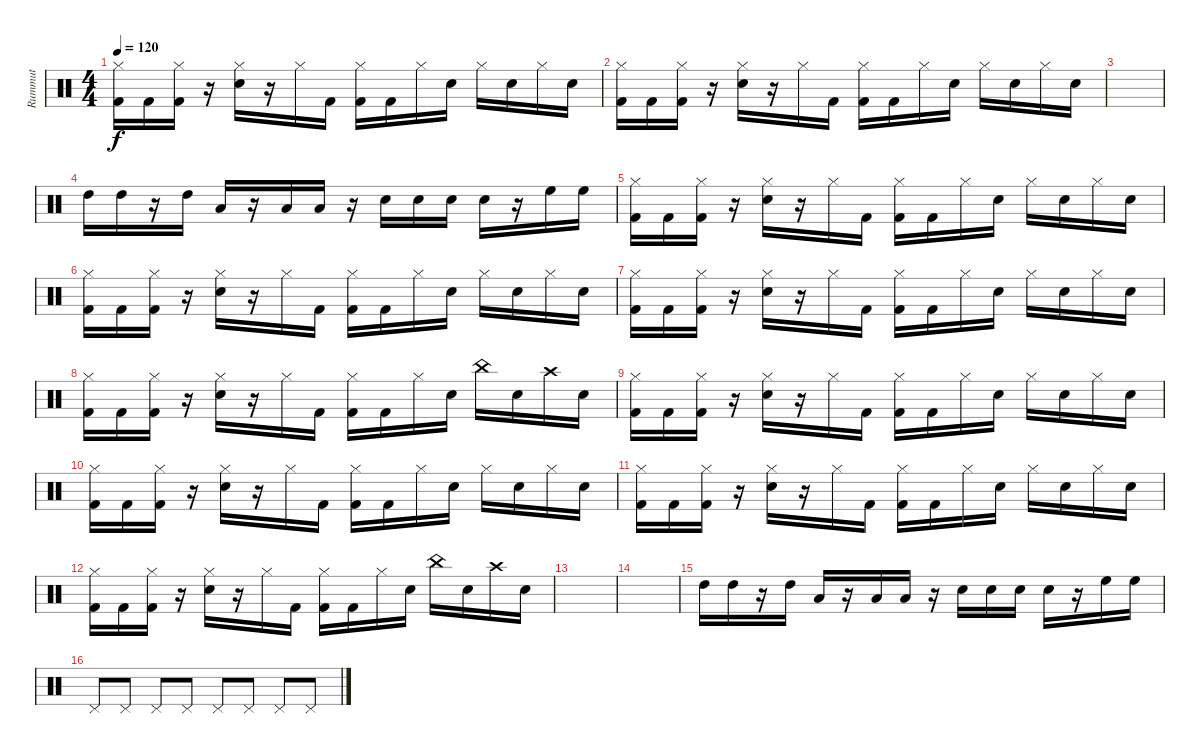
\track ("Rummut" "Rummut") {instrument percussion}
\staff {score}
\articulation defaults
\ts (4 4)
\tempo 120
\clef neutral
\ks c
("Hi-Hat (closed)" "Kick (hit) 2").16{dy f} "Kick (hit) 2".16 ("Hi-Hat (closed)" "Kick (hit) 2").16 r.16 ("Hi-Hat (closed)" "Snare (hit) 2").16 r.16 "Hi-Hat (closed)".16 "Kick (hit) 2".16 ("Hi-Hat (closed)" "Kick (hit) 2").16 "Kick (hit) 2".16 "Hi-Hat (closed)".16 "Snare (hit) 2".16 "Hi-Hat (closed)".16 "Snare (hit) 2".16 "Hi-Hat (closed)".16 "Snare (hit) 2".16 |
("Hi-Hat (closed)" "Kick (hit) 2").16 "Kick (hit) 2".16 ("Hi-Hat (closed)" "Kick (hit) 2").16 r.16 ("Hi-Hat (closed)" "Snare (hit) 2").16 r.16 "Hi-Hat (closed)".16 "Kick (hit) 2".16 ("Hi-Hat (closed)" "Kick (hit) 2").16 "Kick (hit) 2".16 "Hi-Hat (closed)".16 "Snare (hit) 2".16 "Hi-Hat (closed)".16 "Snare (hit) 2".16 "Hi-Hat (closed)".16 "Snare (hit) 2".16 |
|
"High Tom (hit)".16 "High Tom (hit)".16 r.16 "High Tom (hit)".16 "Low Tom (hit)".16 r.16 "Low Tom (hit)".16 "Low Tom (hit)".16 r.16 "Snare (hit) 2".16 "Snare (hit) 2".16 "Snare (hit) 2".16 "Snare (hit) 2".16 r.16 "High Floor Tom (hit)".16 "High Floor Tom (hit)".16 |
("Hi-Hat (closed)" "Kick (hit) 2").16 "Kick (hit) 2".16 ("Hi-Hat (closed)" "Kick (hit) 2").16 r.16 ("Hi-Hat (closed)" "Snare (hit) 2").16 r.16 "Hi-Hat (closed)".16 "Kick (hit) 2".16 ("Hi-Hat (closed)" "Kick (hit) 2").16 "Kick (hit) 2".16 "Hi-Hat (closed)".16 "Snare (hit) 2".16 "Hi-Hat (closed)".16 "Snare (hit) 2".16 "Hi-Hat (closed)".16 "Snare (hit) 2".16 |
("Hi-Hat (closed)" "Kick (hit) 2").16 "Kick (hit) 2".16 ("Hi-Hat (closed)" "Kick (hit) 2").16 r.16 ("Hi-Hat (closed)" "Snare (hit) 2").16 r.16 "Hi-Hat (closed)".16 "Kick (hit) 2".16 ("Hi-Hat (closed)" "Kick (hit) 2").16 "Kick (hit) 2".16 "Hi-Hat (closed)".16 "Snare (hit) 2".16 "Hi-Hat (closed)".16 "Snare (hit) 2".16 "Hi-Hat (closed)".16 "Snare (hit) 2".16 |
("Hi-Hat (closed)" "Kick (hit) 2").16 "Kick (hit) 2".16 ("Hi-Hat (closed)" "Kick (hit) 2").16 r.16 ("Hi-Hat (closed)" "Snare (hit) 2").16 r.16 "Hi-Hat (closed)".16 "Kick (hit) 2".16 ("Hi-Hat (closed)" "Kick (hit) 2").16 "Kick (hit) 2".16 "Hi-Hat (closed)".16 "Snare (hit) 2".16 "Hi-Hat (closed)".16 "Snare (hit) 2".16 "Hi-Hat (closed)".16 "Snare (hit) 2".16 |
("Hi-Hat (closed)" "Kick (hit) 2").16 "Kick (hit) 2".16 ("Hi-Hat (closed)" "Kick (hit) 2").16 r.16 ("Hi-Hat (closed)" "Snare (hit) 2").16 r.16 "Hi-Hat (closed)".16 "Kick (hit) 2".16 ("Hi-Hat (closed)" "Kick (hit) 2").16 "Kick (hit) 2".16 "Hi-Hat (closed)".16 "Snare (hit) 2".16 "China (hit)".16 "Snare (hit) 2".16 "Crash high (hit)".16 "Snare (hit) 2".16 |
("Hi-Hat (closed)" "Kick (hit) 2").16 "Kick (hit) 2".16 ("Hi-Hat (closed)" "Kick (hit) 2").16 r.16 ("Hi-Hat (closed)" "Snare (hit) 2").16 r.16 "Hi-Hat (closed)".16 "Kick (hit) 2".16 ("Hi-Hat (closed)" "Kick (hit) 2").16 "Kick (hit) 2".16 "Hi-Hat (closed)".16 "Snare (hit) 2".16 "Hi-Hat (closed)".16 "Snare (hit) 2".16 "Hi-Hat (closed)".16 "Snare (hit) 2".16 |
("Hi-Hat (closed)" "Kick (hit) 2").16 "Kick (hit) 2".16 ("Hi-Hat (closed)" "Kick (hit) 2").16 r.16 ("Hi-Hat (closed)" "Snare (hit) 2").16 r.16 "Hi-Hat (closed)".16 "Kick (hit) 2".16 ("Hi-Hat (closed)" "Kick (hit) 2").16 "Kick (hit) 2".16 "Hi-Hat (closed)".16 "Snare (hit) 2".16 "Hi-Hat (closed)".16 "Snare (hit) 2".16 "Hi-Hat (closed)".16 "Snare (hit) 2".16 |
("Hi-Hat (closed)" "Kick (hit) 2").16 "Kick (hit) 2".16 ("Hi-Hat (closed)" "Kick (hit) 2").16 r.16 ("Hi-Hat (closed)" "Snare (hit) 2").16 r.16 "Hi-Hat (closed)".16 "Kick (hit) 2".16 ("Hi-Hat (closed)" "Kick (hit) 2").16 "Kick (hit) 2".16 "Hi-Hat (closed)".16 "Snare (hit) 2".16 "Hi-Hat (closed)".16 "Snare (hit) 2".16 "Hi-Hat (closed)".16 "Snare (hit) 2".16 |
("Hi-Hat (closed)" "Kick (hit) 2").16 "Kick (hit) 2".16 ("Hi-Hat (closed)" "Kick (hit) 2").16 r.16 ("Hi-Hat (closed)" "Snare (hit) 2").16 r.16 "Hi-Hat (closed)".16 "Kick (hit) 2".16 ("Hi-Hat (closed)" "Kick (hit) 2").16 "Kick (hit) 2".16 "Hi-Hat (closed)".16 "Snare (hit) 2".16 "China (hit)".16 "Snare (hit) 2".16 "Crash high (hit)".16 "Snare (hit) 2".16 |
|
|
"High Tom (hit)".16 "High Tom (hit)".16 r.16 "High Tom (hit)".16 "Low Tom (hit)".16 r.16 "Low Tom (hit)".16 "Low Tom (hit)".16 r.16 "Snare (hit) 2".16 "Snare (hit) 2".16 "Snare (hit) 2".16 "Snare (hit) 2".16 r.16 "High Floor Tom (hit)".16 "High Floor Tom (hit)".16 |
"Pedal Hi-Hat (hit)".8 "Pedal Hi-Hat (hit)".8 "Pedal Hi-Hat (hit)".8 "Pedal Hi-Hat (hit)".8 "Pedal Hi-Hat (hit)".8 "Pedal Hi-Hat (hit)".8 "Pedal Hi-Hat (hit)".8 "Pedal Hi-Hat (hit)".8
